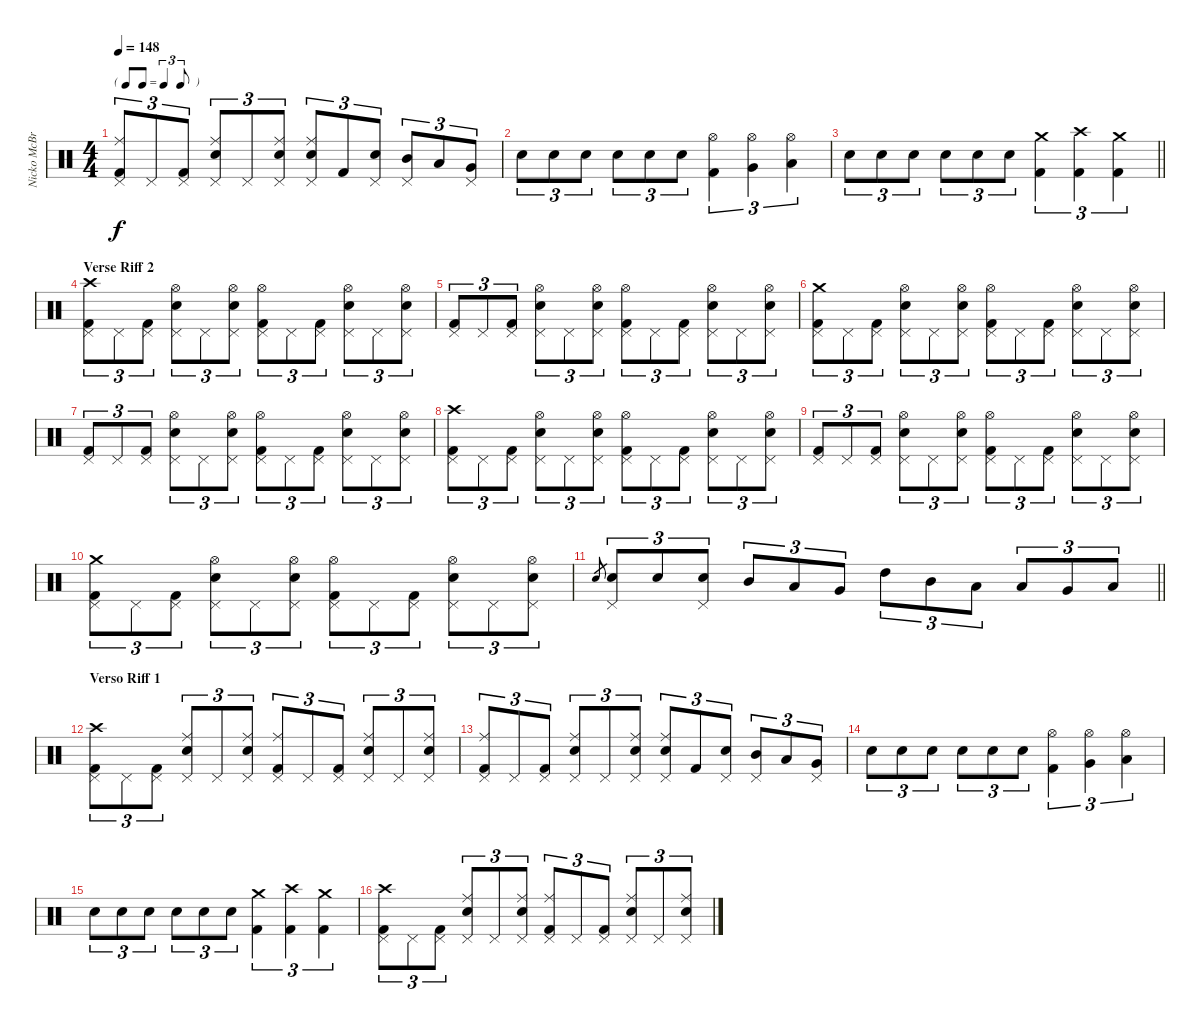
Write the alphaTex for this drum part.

\track ("Nicko McBrain" "Nicko McBr") {instrument percussion}
\staff {score}
\articulation defaults
\ts (4 4)
\tf triplet8th
\tempo 148
\clef neutral
\ks c
("Kick (hit) 2" "Pedal Hi-Hat (hit)" "Ride (middle)").8{tu (3 2) dy f} "Pedal Hi-Hat (hit)".8{tu (3 2)} ("Kick (hit) 2" "Pedal Hi-Hat (hit)").8{tu (3 2)} ("Snare (hit) 2" "Pedal Hi-Hat (hit)" "Ride (middle)").8{tu (3 2)} "Pedal Hi-Hat (hit)".8{tu (3 2)} ("Snare (hit) 2" "Pedal Hi-Hat (hit)" "Ride (middle)").8{tu (3 2)} ("Snare (hit) 2" "Pedal Hi-Hat (hit)" "Ride (middle)").8{tu (3 2)} "Kick (hit) 2".8{tu (3 2)} ("Snare (hit) 2" "Pedal Hi-Hat (hit)").8{tu (3 2)} ("Mid Tom (hit)" "Pedal Hi-Hat (hit)").8{tu (3 2)} "Low Tom (hit)".8{tu (3 2)} ("Very Low Tom (hit)" "Pedal Hi-Hat (hit)").8{tu (3 2)} |
"Snare (hit) 2".8{tu (3 2)} "Snare (hit) 2".8{tu (3 2)} "Snare (hit) 2".8{tu (3 2)} "Snare (hit) 2".8{tu (3 2)} "Snare (hit) 2".8{tu (3 2)} "Snare (hit) 2".8{tu (3 2)} ("Kick (hit) 2" "Hi-Hat (open)").4{tu (3 2)} ("Very Low Tom (hit)" "Hi-Hat (open)").4{tu (3 2)} ("Low Floor Tom (hit)" "Hi-Hat (open)").4{tu (3 2)} |
\barLineRight lightlight "Snare (hit) 2".8{tu (3 2)} "Snare (hit) 2".8{tu (3 2)} "Snare (hit) 2".8{tu (3 2)} "Snare (hit) 2".8{tu (3 2)} "Snare (hit) 2".8{tu (3 2)} "Snare (hit) 2".8{tu (3 2)}
("Kick (hit) 2" "Crash medium (hit)").4{tu (3 2)} ("Kick (hit) 2" "Crash high (hit)").4{tu (3 2)} ("Kick (hit) 2" "Crash medium (hit)").4{tu (3 2)} |
\section ("" "Verse Riff 2")
("Kick (hit) 2" "Pedal Hi-Hat (hit)" "Crash high (hit)").8{tu (3 2)} "Pedal Hi-Hat (hit)".8{tu (3 2)} ("Kick (hit) 2" "Pedal Hi-Hat (hit)").8{tu (3 2)} ("Snare (hit) 2" "Pedal Hi-Hat (hit)" "Hi-Hat (open)").8{tu (3 2)} "Pedal Hi-Hat (hit)".8{tu (3 2)} ("Snare (hit) 2" "Pedal Hi-Hat (hit)" "Hi-Hat (open)").8{tu (3 2)} ("Kick (hit) 2" "Pedal Hi-Hat (hit)" "Hi-Hat (open)").8{tu (3 2)} "Pedal Hi-Hat (hit)".8{tu (3 2)} ("Kick (hit) 2" "Pedal Hi-Hat (hit)").8{tu (3 2)} ("Snare (hit) 2" "Pedal Hi-Hat (hit)" "Hi-Hat (open)").8{tu (3 2)} "Pedal Hi-Hat (hit)".8{tu (3 2)} ("Snare (hit) 2" "Pedal Hi-Hat (hit)" "Hi-Hat (open)").8{tu (3 2)} |
("Kick (hit) 2" "Pedal Hi-Hat (hit)").8{tu (3 2)} "Pedal Hi-Hat (hit)".8{tu (3 2)} ("Kick (hit) 2" "Pedal Hi-Hat (hit)").8{tu (3 2)} ("Snare (hit) 2" "Pedal Hi-Hat (hit)" "Hi-Hat (open)").8{tu (3 2)} "Pedal Hi-Hat (hit)".8{tu (3 2)} ("Snare (hit) 2" "Pedal Hi-Hat (hit)" "Hi-Hat (open)").8{tu (3 2)} ("Kick (hit) 2" "Pedal Hi-Hat (hit)" "Hi-Hat (open)").8{tu (3 2)} "Pedal Hi-Hat (hit)".8{tu (3 2)} ("Kick (hit) 2" "Pedal Hi-Hat (hit)").8{tu (3 2)} ("Snare (hit) 2" "Pedal Hi-Hat (hit)" "Hi-Hat (open)").8{tu (3 2)} "Pedal Hi-Hat (hit)".8{tu (3 2)} ("Snare (hit) 2" "Pedal Hi-Hat (hit)" "Hi-Hat (open)").8{tu (3 2)} |
("Kick (hit) 2" "Pedal Hi-Hat (hit)" "Crash medium (hit)").8{tu (3 2)} "Pedal Hi-Hat (hit)".8{tu (3 2)} ("Kick (hit) 2" "Pedal Hi-Hat (hit)").8{tu (3 2)} ("Snare (hit) 2" "Pedal Hi-Hat (hit)" "Hi-Hat (open)").8{tu (3 2)} "Pedal Hi-Hat (hit)".8{tu (3 2)} ("Snare (hit) 2" "Pedal Hi-Hat (hit)" "Hi-Hat (open)").8{tu (3 2)} ("Kick (hit) 2" "Pedal Hi-Hat (hit)" "Hi-Hat (open)").8{tu (3 2)} "Pedal Hi-Hat (hit)".8{tu (3 2)} ("Kick (hit) 2" "Pedal Hi-Hat (hit)").8{tu (3 2)} ("Snare (hit) 2" "Pedal Hi-Hat (hit)" "Hi-Hat (open)").8{tu (3 2)} "Pedal Hi-Hat (hit)".8{tu (3 2)} ("Snare (hit) 2" "Pedal Hi-Hat (hit)" "Hi-Hat (open)").8{tu (3 2)} |
("Kick (hit) 2" "Pedal Hi-Hat (hit)").8{tu (3 2)} "Pedal Hi-Hat (hit)".8{tu (3 2)} ("Kick (hit) 2" "Pedal Hi-Hat (hit)").8{tu (3 2)} ("Snare (hit) 2" "Pedal Hi-Hat (hit)" "Hi-Hat (open)").8{tu (3 2)} "Pedal Hi-Hat (hit)".8{tu (3 2)} ("Snare (hit) 2" "Pedal Hi-Hat (hit)" "Hi-Hat (open)").8{tu (3 2)} ("Kick (hit) 2" "Pedal Hi-Hat (hit)" "Hi-Hat (open)").8{tu (3 2)} "Pedal Hi-Hat (hit)".8{tu (3 2)} ("Kick (hit) 2" "Pedal Hi-Hat (hit)").8{tu (3 2)} ("Snare (hit) 2" "Pedal Hi-Hat (hit)" "Hi-Hat (open)").8{tu (3 2)} "Pedal Hi-Hat (hit)".8{tu (3 2)} ("Snare (hit) 2" "Pedal Hi-Hat (hit)" "Hi-Hat (open)").8{tu (3 2)} |
("Kick (hit) 2" "Pedal Hi-Hat (hit)" "Crash high (hit)").8{tu (3 2)} "Pedal Hi-Hat (hit)".8{tu (3 2)} ("Kick (hit) 2" "Pedal Hi-Hat (hit)").8{tu (3 2)} ("Snare (hit) 2" "Pedal Hi-Hat (hit)" "Hi-Hat (open)").8{tu (3 2)} "Pedal Hi-Hat (hit)".8{tu (3 2)} ("Snare (hit) 2" "Pedal Hi-Hat (hit)" "Hi-Hat (open)").8{tu (3 2)} ("Kick (hit) 2" "Pedal Hi-Hat (hit)" "Hi-Hat (open)").8{tu (3 2)} "Pedal Hi-Hat (hit)".8{tu (3 2)} ("Kick (hit) 2" "Pedal Hi-Hat (hit)").8{tu (3 2)} ("Snare (hit) 2" "Pedal Hi-Hat (hit)" "Hi-Hat (open)").8{tu (3 2)} "Pedal Hi-Hat (hit)".8{tu (3 2)} ("Snare (hit) 2" "Pedal Hi-Hat (hit)" "Hi-Hat (open)").8{tu (3 2)} |
("Kick (hit) 2" "Pedal Hi-Hat (hit)").8{tu (3 2)} "Pedal Hi-Hat (hit)".8{tu (3 2)} ("Kick (hit) 2" "Pedal Hi-Hat (hit)").8{tu (3 2)} ("Snare (hit) 2" "Pedal Hi-Hat (hit)" "Hi-Hat (open)").8{tu (3 2)} "Pedal Hi-Hat (hit)".8{tu (3 2)} ("Snare (hit) 2" "Pedal Hi-Hat (hit)" "Hi-Hat (open)").8{tu (3 2)} ("Kick (hit) 2" "Pedal Hi-Hat (hit)" "Hi-Hat (open)").8{tu (3 2)} "Pedal Hi-Hat (hit)".8{tu (3 2)} ("Kick (hit) 2" "Pedal Hi-Hat (hit)").8{tu (3 2)} ("Snare (hit) 2" "Pedal Hi-Hat (hit)" "Hi-Hat (open)").8{tu (3 2)} "Pedal Hi-Hat (hit)".8{tu (3 2)} ("Snare (hit) 2" "Pedal Hi-Hat (hit)" "Hi-Hat (open)").8{tu (3 2)} |
("Kick (hit) 2" "Pedal Hi-Hat (hit)" "Crash medium (hit)").8{tu (3 2)} "Pedal Hi-Hat (hit)".8{tu (3 2)} ("Kick (hit) 2" "Pedal Hi-Hat (hit)").8{tu (3 2)} ("Snare (hit) 2" "Pedal Hi-Hat (hit)" "Hi-Hat (open)").8{tu (3 2)} "Pedal Hi-Hat (hit)".8{tu (3 2)} ("Snare (hit) 2" "Pedal Hi-Hat (hit)" "Hi-Hat (open)").8{tu (3 2)} ("Kick (hit) 2" "Pedal Hi-Hat (hit)" "Hi-Hat (open)").8{tu (3 2)} "Pedal Hi-Hat (hit)".8{tu (3 2)} ("Kick (hit) 2" "Pedal Hi-Hat (hit)").8{tu (3 2)} ("Snare (hit) 2" "Pedal Hi-Hat (hit)" "Hi-Hat (open)").8{tu (3 2)} "Pedal Hi-Hat (hit)".8{tu (3 2)} ("Snare (hit) 2" "Pedal Hi-Hat (hit)" "Hi-Hat (open)").8{tu (3 2)} |
\barLineRight lightlight "Snare (hit) 2".8{gr}
("Snare (hit) 2" "Pedal Hi-Hat (hit)").8{tu (3 2)} "Snare (hit) 2".8{tu (3 2)} ("Snare (hit) 2" "Pedal Hi-Hat (hit)").8{tu (3 2)} "Mid Tom (hit)".8{tu (3 2)} "Low Tom (hit)".8{tu (3 2)} "Very Low Tom (hit)".8{tu (3 2)} "High Tom (hit)".8{tu (3 2)} "Mid Tom (hit)".8{tu (3 2)} "Low Tom (hit)".8{tu (3 2)} "Low Tom (hit)".8{tu (3 2)} "Very Low Tom (hit)".8{tu (3 2)} "Low Floor Tom (hit)".8{tu (3 2)} |
\section ("" "Verso Riff 1")
("Kick (hit) 2" "Pedal Hi-Hat (hit)" "Crash high (hit)").8{tu (3 2)} "Pedal Hi-Hat (hit)".8{tu (3 2)} ("Kick (hit) 2" "Pedal Hi-Hat (hit)").8{tu (3 2)} ("Snare (hit) 2" "Pedal Hi-Hat (hit)" "Ride (middle)").8{tu (3 2)} "Pedal Hi-Hat (hit)".8{tu (3 2)} ("Snare (hit) 2" "Pedal Hi-Hat (hit)" "Ride (middle)").8{tu (3 2)} ("Kick (hit) 2" "Pedal Hi-Hat (hit)" "Ride (middle)").8{tu (3 2)} "Pedal Hi-Hat (hit)".8{tu (3 2)} ("Kick (hit) 2" "Pedal Hi-Hat (hit)").8{tu (3 2)} ("Snare (hit) 2" "Pedal Hi-Hat (hit)" "Ride (middle)").8{tu (3 2)} "Pedal Hi-Hat (hit)".8{tu (3 2)} ("Snare (hit) 2" "Pedal Hi-Hat (hit)" "Ride (middle)").8{tu (3 2)} |
("Kick (hit) 2" "Pedal Hi-Hat (hit)" "Ride (middle)").8{tu (3 2)} "Pedal Hi-Hat (hit)".8{tu (3 2)} ("Kick (hit) 2" "Pedal Hi-Hat (hit)").8{tu (3 2)} ("Snare (hit) 2" "Pedal Hi-Hat (hit)" "Ride (middle)").8{tu (3 2)} "Pedal Hi-Hat (hit)".8{tu (3 2)} ("Snare (hit) 2" "Pedal Hi-Hat (hit)" "Ride (middle)").8{tu (3 2)} ("Snare (hit) 2" "Pedal Hi-Hat (hit)" "Ride (middle)").8{tu (3 2)} "Kick (hit) 2".8{tu (3 2)} ("Snare (hit) 2" "Pedal Hi-Hat (hit)").8{tu (3 2)} ("Mid Tom (hit)" "Pedal Hi-Hat (hit)").8{tu (3 2)} "Low Tom (hit)".8{tu (3 2)} ("Very Low Tom (hit)" "Pedal Hi-Hat (hit)").8{tu (3 2)} |
"Snare (hit) 2".8{tu (3 2)} "Snare (hit) 2".8{tu (3 2)} "Snare (hit) 2".8{tu (3 2)} "Snare (hit) 2".8{tu (3 2)} "Snare (hit) 2".8{tu (3 2)} "Snare (hit) 2".8{tu (3 2)} ("Kick (hit) 2" "Hi-Hat (open)").4{tu (3 2)} ("Very Low Tom (hit)" "Hi-Hat (open)").4{tu (3 2)} ("Low Floor Tom (hit)" "Hi-Hat (open)").4{tu (3 2)} |
"Snare (hit) 2".8{tu (3 2)} "Snare (hit) 2".8{tu (3 2)} "Snare (hit) 2".8{tu (3 2)} "Snare (hit) 2".8{tu (3 2)} "Snare (hit) 2".8{tu (3 2)} "Snare (hit) 2".8{tu (3 2)} ("Kick (hit) 2" "Crash medium (hit)").4{tu (3 2)} ("Kick (hit) 2" "Crash high (hit)").4{tu (3 2)} ("Kick (hit) 2" "Crash medium (hit)").4{tu (3 2)} |
("Kick (hit) 2" "Pedal Hi-Hat (hit)" "Crash high (hit)").8{tu (3 2)} "Pedal Hi-Hat (hit)".8{tu (3 2)} ("Kick (hit) 2" "Pedal Hi-Hat (hit)").8{tu (3 2)} ("Snare (hit) 2" "Pedal Hi-Hat (hit)" "Ride (middle)").8{tu (3 2)} "Pedal Hi-Hat (hit)".8{tu (3 2)} ("Snare (hit) 2" "Pedal Hi-Hat (hit)" "Ride (middle)").8{tu (3 2)} ("Kick (hit) 2" "Pedal Hi-Hat (hit)" "Ride (middle)").8{tu (3 2)} "Pedal Hi-Hat (hit)".8{tu (3 2)} ("Kick (hit) 2" "Pedal Hi-Hat (hit)").8{tu (3 2)} ("Snare (hit) 2" "Pedal Hi-Hat (hit)" "Ride (middle)").8{tu (3 2)} "Pedal Hi-Hat (hit)".8{tu (3 2)} ("Snare (hit) 2" "Pedal Hi-Hat (hit)" "Ride (middle)").8{tu (3 2)}
